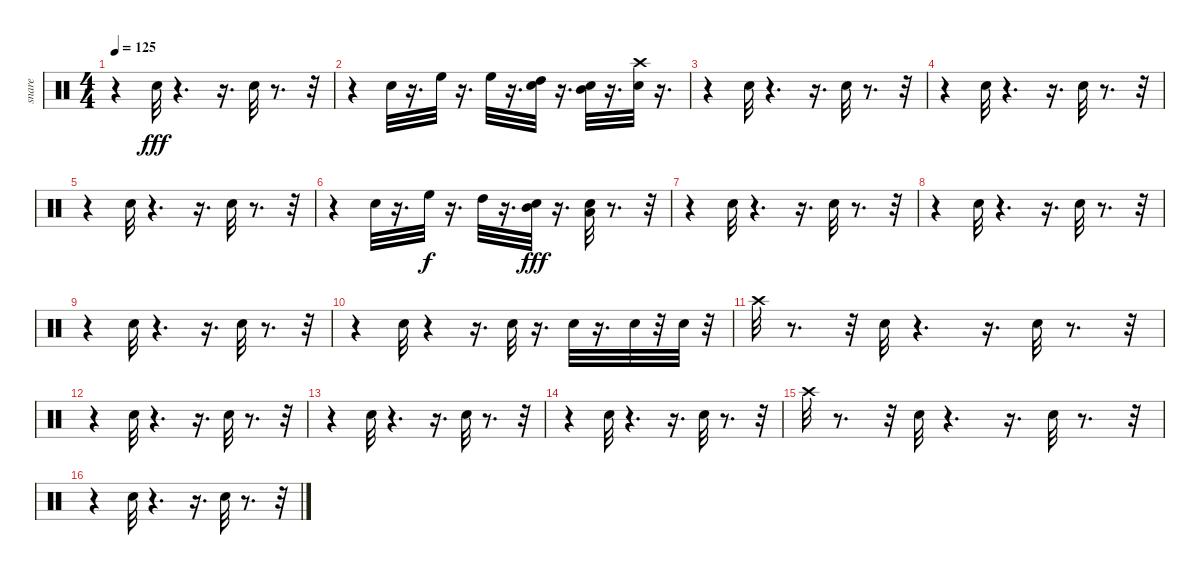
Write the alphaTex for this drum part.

\track ("snare" "snare") {instrument percussion}
\staff {score}
\articulation defaults
\ts (4 4)
\tempo 125
\clef neutral
\ks c
r.4{dy fff} "Electric Snare (hit)".32 r.4{d} r.16{d} "Electric Snare (hit)".32 r.8{d} r.32 |
r.4 "Electric Snare (hit)".32 r.16{d} "High Floor Tom (hit)".32 r.16{d} "High Floor Tom (hit)".32 r.16{d} ("High Tom (hit)" "Electric Snare (hit)").32 r.16{d} ("Mid Tom (hit)" "Electric Snare (hit)").32 r.16{d} ("Crash high (hit)" "Electric Snare (hit)").32 r.16{d} |
r.4 "Electric Snare (hit)".32 r.4{d} r.16{d} "Electric Snare (hit)".32 r.8{d} r.32 |
r.4 "Electric Snare (hit)".32 r.4{d} r.16{d} "Electric Snare (hit)".32 r.8{d} r.32 |
r.4 "Electric Snare (hit)".32 r.4{d} r.16{d} "Electric Snare (hit)".32 r.8{d} r.32 |
r.4 "Electric Snare (hit)".32 r.16{d} "High Floor Tom (hit)".32{dy f} r.16{d} "High Tom (hit)".32 r.16{d} ("Mid Tom (hit)" "Electric Snare (hit)").32{dy fff} r.16{d} ("Low Tom (hit)" "Electric Snare (hit)").32 r.8{d} r.32 |
r.4 "Electric Snare (hit)".32 r.4{d} r.16{d} "Electric Snare (hit)".32 r.8{d} r.32 |
r.4 "Electric Snare (hit)".32 r.4{d} r.16{d} "Electric Snare (hit)".32 r.8{d} r.32 |
r.4 "Electric Snare (hit)".32 r.4{d} r.16{d} "Electric Snare (hit)".32 r.8{d} r.32 |
r.4 "Electric Snare (hit)".32 r.4 r.16{d} "Electric Snare (hit)".32 r.16{d} "Electric Snare (hit)".32 r.16{d} "Electric Snare (hit)".32 r.32 "Electric Snare (hit)".32 r.32 |
"Crash high (hit)".32 r.8{d} r.32 "Electric Snare (hit)".32 r.4{d} r.16{d} "Electric Snare (hit)".32 r.8{d} r.32 |
r.4 "Electric Snare (hit)".32 r.4{d} r.16{d} "Electric Snare (hit)".32 r.8{d} r.32 |
r.4 "Electric Snare (hit)".32 r.4{d} r.16{d} "Electric Snare (hit)".32 r.8{d} r.32 |
r.4 "Electric Snare (hit)".32 r.4{d} r.16{d} "Electric Snare (hit)".32 r.8{d} r.32 |
"Crash high (hit)".32 r.8{d} r.32 "Electric Snare (hit)".32 r.4{d} r.16{d} "Electric Snare (hit)".32 r.8{d} r.32 |
r.4 "Electric Snare (hit)".32 r.4{d} r.16{d} "Electric Snare (hit)".32 r.8{d} r.32
